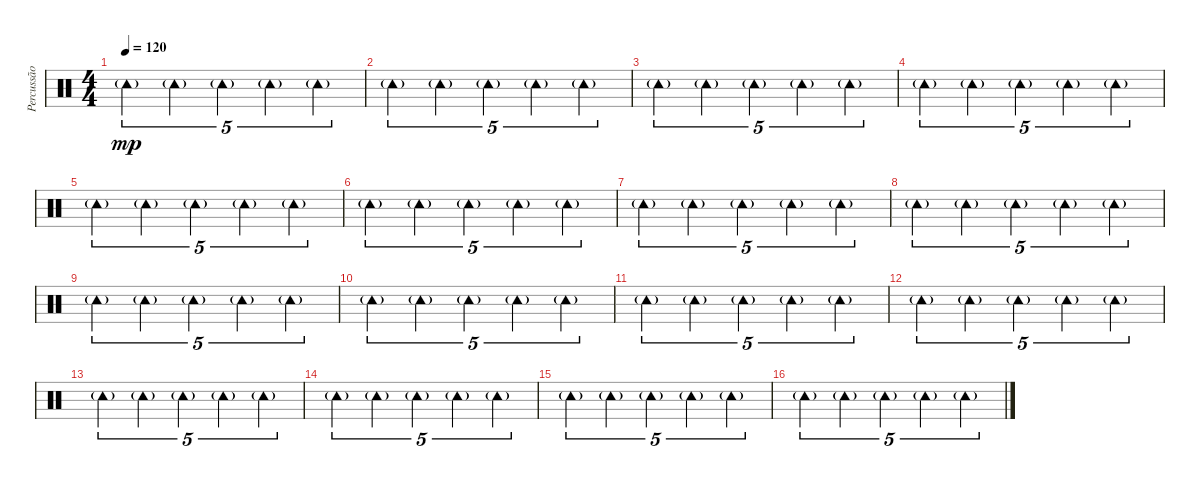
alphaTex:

\track ("Percussão" "Percussão") {instrument percussion}
\staff {score}
\articulation defaults
\ts (4 4)
\tempo 120
\clef neutral
\ks c "Tambourine (hit)"{g}.4{tu (5 4) dy mp} "Tambourine (hit)"{g}.4{tu (5 4)} "Tambourine (hit)"{g}.4{tu (5 4)} "Tambourine (hit)"{g}.4{tu (5 4)} "Tambourine (hit)"{g}.4{tu (5 4)}
|
"Tambourine (hit)"{g}.4{tu (5 4)} "Tambourine (hit)"{g}.4{tu (5 4)} "Tambourine (hit)"{g}.4{tu (5 4)} "Tambourine (hit)"{g}.4{tu (5 4)} "Tambourine (hit)"{g}.4{tu (5 4)} |
"Tambourine (hit)"{g}.4{tu (5 4)} "Tambourine (hit)"{g}.4{tu (5 4)} "Tambourine (hit)"{g}.4{tu (5 4)} "Tambourine (hit)"{g}.4{tu (5 4)} "Tambourine (hit)"{g}.4{tu (5 4)} |
"Tambourine (hit)"{g}.4{tu (5 4)} "Tambourine (hit)"{g}.4{tu (5 4)} "Tambourine (hit)"{g}.4{tu (5 4)} "Tambourine (hit)"{g}.4{tu (5 4)} "Tambourine (hit)"{g}.4{tu (5 4)} |
"Tambourine (hit)"{g}.4{tu (5 4)} "Tambourine (hit)"{g}.4{tu (5 4)} "Tambourine (hit)"{g}.4{tu (5 4)} "Tambourine (hit)"{g}.4{tu (5 4)} "Tambourine (hit)"{g}.4{tu (5 4)} |
"Tambourine (hit)"{g}.4{tu (5 4)} "Tambourine (hit)"{g}.4{tu (5 4)} "Tambourine (hit)"{g}.4{tu (5 4)} "Tambourine (hit)"{g}.4{tu (5 4)} "Tambourine (hit)"{g}.4{tu (5 4)} |
"Tambourine (hit)"{g}.4{tu (5 4)} "Tambourine (hit)"{g}.4{tu (5 4)} "Tambourine (hit)"{g}.4{tu (5 4)} "Tambourine (hit)"{g}.4{tu (5 4)} "Tambourine (hit)"{g}.4{tu (5 4)} |
"Tambourine (hit)"{g}.4{tu (5 4)} "Tambourine (hit)"{g}.4{tu (5 4)} "Tambourine (hit)"{g}.4{tu (5 4)} "Tambourine (hit)"{g}.4{tu (5 4)} "Tambourine (hit)"{g}.4{tu (5 4)} |
"Tambourine (hit)"{g}.4{tu (5 4)} "Tambourine (hit)"{g}.4{tu (5 4)} "Tambourine (hit)"{g}.4{tu (5 4)} "Tambourine (hit)"{g}.4{tu (5 4)} "Tambourine (hit)"{g}.4{tu (5 4)} |
"Tambourine (hit)"{g}.4{tu (5 4)} "Tambourine (hit)"{g}.4{tu (5 4)} "Tambourine (hit)"{g}.4{tu (5 4)} "Tambourine (hit)"{g}.4{tu (5 4)} "Tambourine (hit)"{g}.4{tu (5 4)} |
"Tambourine (hit)"{g}.4{tu (5 4)} "Tambourine (hit)"{g}.4{tu (5 4)} "Tambourine (hit)"{g}.4{tu (5 4)} "Tambourine (hit)"{g}.4{tu (5 4)} "Tambourine (hit)"{g}.4{tu (5 4)} |
"Tambourine (hit)"{g}.4{tu (5 4)} "Tambourine (hit)"{g}.4{tu (5 4)} "Tambourine (hit)"{g}.4{tu (5 4)} "Tambourine (hit)"{g}.4{tu (5 4)} "Tambourine (hit)"{g}.4{tu (5 4)} |
"Tambourine (hit)"{g}.4{tu (5 4)} "Tambourine (hit)"{g}.4{tu (5 4)} "Tambourine (hit)"{g}.4{tu (5 4)} "Tambourine (hit)"{g}.4{tu (5 4)} "Tambourine (hit)"{g}.4{tu (5 4)} |
"Tambourine (hit)"{g}.4{tu (5 4)} "Tambourine (hit)"{g}.4{tu (5 4)} "Tambourine (hit)"{g}.4{tu (5 4)} "Tambourine (hit)"{g}.4{tu (5 4)} "Tambourine (hit)"{g}.4{tu (5 4)} |
"Tambourine (hit)"{g}.4{tu (5 4)} "Tambourine (hit)"{g}.4{tu (5 4)} "Tambourine (hit)"{g}.4{tu (5 4)} "Tambourine (hit)"{g}.4{tu (5 4)} "Tambourine (hit)"{g}.4{tu (5 4)} |
"Tambourine (hit)"{g}.4{tu (5 4)} "Tambourine (hit)"{g}.4{tu (5 4)} "Tambourine (hit)"{g}.4{tu (5 4)} "Tambourine (hit)"{g}.4{tu (5 4)} "Tambourine (hit)"{g}.4{tu (5 4)}
